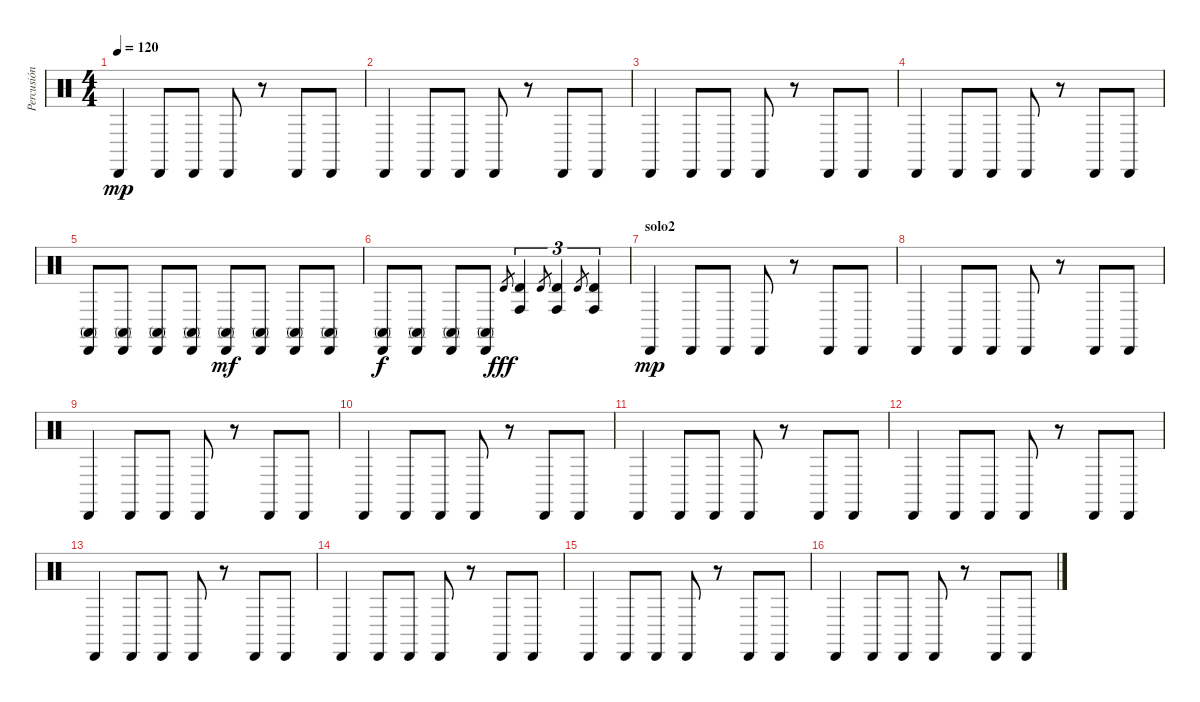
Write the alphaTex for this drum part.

\track ("Percusión" "Percusión") {instrument percussion}
\staff {score}
\articulation defaults
\ts (4 4)
\tempo 120
\clef neutral
\ks c "Cabasa (hit)".4{dy mp} "Cabasa (hit)".8 "Cabasa (hit)".8 "Cabasa (hit)".8
r.8 "Cabasa (hit)".8 "Cabasa (hit)".8 |
"Cabasa (hit)".4 "Cabasa (hit)".8 "Cabasa (hit)".8 "Cabasa (hit)".8 r.8 "Cabasa (hit)".8 "Cabasa (hit)".8 |
"Cabasa (hit)".4 "Cabasa (hit)".8 "Cabasa (hit)".8 "Cabasa (hit)".8 r.8 "Cabasa (hit)".8 "Cabasa (hit)".8 |
"Cabasa (hit)".4 "Cabasa (hit)".8 "Cabasa (hit)".8 "Cabasa (hit)".8 r.8 "Cabasa (hit)".8 "Cabasa (hit)".8 |
("Cabasa (hit)" "Conga high (mute)").8 ("Cabasa (hit)" "Conga high (mute)").8 ("Cabasa (hit)" "Conga high (mute)").8 ("Cabasa (hit)" "Conga high (mute)").8 ("Cabasa (hit)" "Conga high (mute)").8{dy mf} ("Cabasa (hit)" "Conga high (mute)").8 ("Cabasa (hit)" "Conga high (mute)").8 ("Cabasa (hit)" "Conga high (mute)").8 |
("Cabasa (hit)" "Conga high (mute)").8{dy f} ("Cabasa (hit)" "Conga high (mute)").8 ("Cabasa (hit)" "Conga high (mute)").8 ("Cabasa (hit)" "Conga high (mute)").8 "Timbale high (hit)".8{gr dy fff} ("Timbale high (hit)" "Conga high (hit)").4{tu (3 2)} "Timbale high (hit)".8{gr} ("Timbale high (hit)" "Conga high (hit)").4{tu (3 2)} "Timbale high (hit)".8{gr} ("Timbale high (hit)" "Conga high (hit)").4{tu (3 2)} |
\section ("" "solo2")
"Cabasa (hit)".4{dy mp} "Cabasa (hit)".8 "Cabasa (hit)".8 "Cabasa (hit)".8 r.8 "Cabasa (hit)".8 "Cabasa (hit)".8 |
"Cabasa (hit)".4 "Cabasa (hit)".8 "Cabasa (hit)".8 "Cabasa (hit)".8 r.8 "Cabasa (hit)".8 "Cabasa (hit)".8 |
"Cabasa (hit)".4 "Cabasa (hit)".8 "Cabasa (hit)".8 "Cabasa (hit)".8 r.8 "Cabasa (hit)".8 "Cabasa (hit)".8 |
"Cabasa (hit)".4 "Cabasa (hit)".8 "Cabasa (hit)".8 "Cabasa (hit)".8 r.8 "Cabasa (hit)".8 "Cabasa (hit)".8 |
"Cabasa (hit)".4 "Cabasa (hit)".8 "Cabasa (hit)".8 "Cabasa (hit)".8 r.8 "Cabasa (hit)".8 "Cabasa (hit)".8 |
"Cabasa (hit)".4 "Cabasa (hit)".8 "Cabasa (hit)".8 "Cabasa (hit)".8 r.8 "Cabasa (hit)".8 "Cabasa (hit)".8 |
"Cabasa (hit)".4 "Cabasa (hit)".8 "Cabasa (hit)".8 "Cabasa (hit)".8 r.8 "Cabasa (hit)".8 "Cabasa (hit)".8 |
"Cabasa (hit)".4 "Cabasa (hit)".8 "Cabasa (hit)".8 "Cabasa (hit)".8 r.8 "Cabasa (hit)".8 "Cabasa (hit)".8 |
"Cabasa (hit)".4 "Cabasa (hit)".8 "Cabasa (hit)".8 "Cabasa (hit)".8 r.8 "Cabasa (hit)".8 "Cabasa (hit)".8 |
"Cabasa (hit)".4 "Cabasa (hit)".8 "Cabasa (hit)".8 "Cabasa (hit)".8 r.8 "Cabasa (hit)".8 "Cabasa (hit)".8
